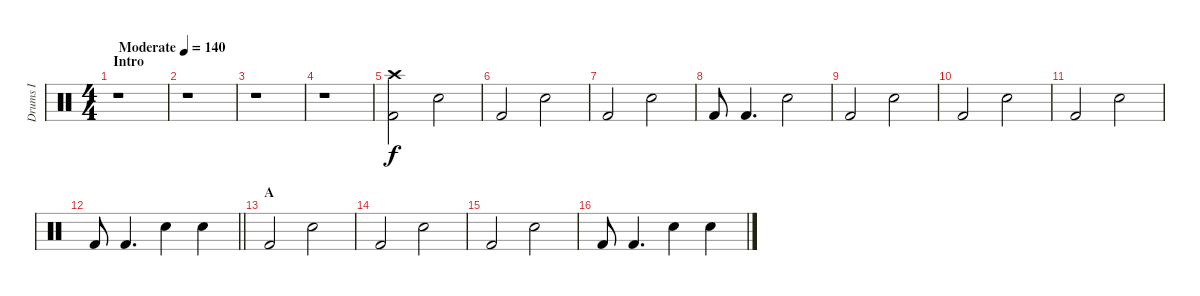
\track ("Drums I" "Drums I") {instrument percussion}
\staff {score}
\articulation defaults
\ts (4 4)
\section ("" "Intro")
\tempo (140 "Moderate")
\clef neutral
\ks c
r.1{dy f} |
r.1 |
r.1 |
r.1 |
("Crash high (hit)" "Kick (hit) 2").2 "Electric Snare (hit)".2 |
"Kick (hit) 2".2 "Electric Snare (hit)".2 |
"Kick (hit) 2".2 "Electric Snare (hit)".2 |
"Kick (hit) 2".8 "Kick (hit) 2".4{d} "Electric Snare (hit)".2 |
"Kick (hit) 2".2 "Electric Snare (hit)".2 |
"Kick (hit) 2".2 "Electric Snare (hit)".2 |
"Kick (hit) 2".2 "Electric Snare (hit)".2 |
\barLineRight lightlight "Kick (hit) 2".8 "Kick (hit) 2".4{d} "Electric Snare (hit)".4 "Electric Snare (hit)".4
|
\section ("" "A")
"Kick (hit) 2".2 "Electric Snare (hit)".2 |
"Kick (hit) 2".2 "Electric Snare (hit)".2 |
"Kick (hit) 2".2 "Electric Snare (hit)".2 |
"Kick (hit) 2".8 "Kick (hit) 2".4{d} "Electric Snare (hit)".4 "Electric Snare (hit)".4
